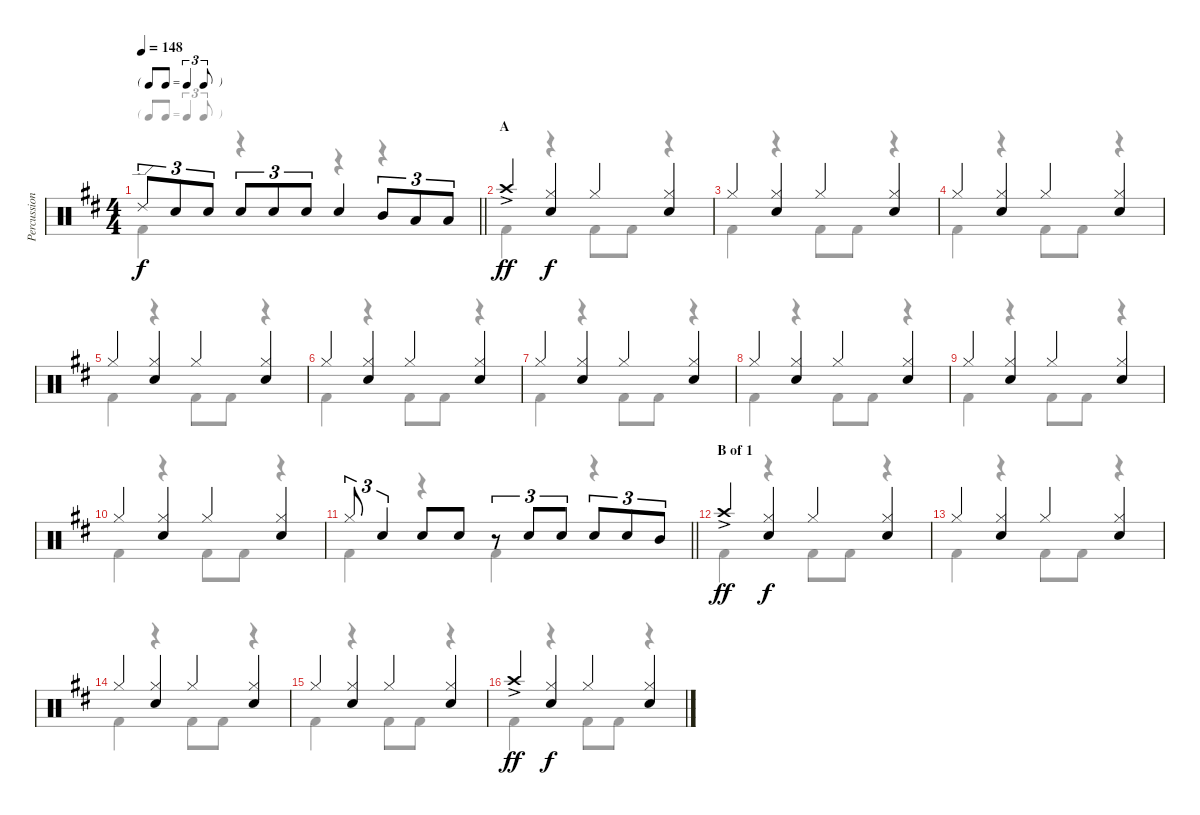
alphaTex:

\track ("Percussion" "Percussion") {instrument percussion}
\staff {score}
\articulation defaults
\voice
\ts (4 4)
\tf triplet8th
\tempo 148
\clef neutral
\barLineRight lightlight
\ks bminor "Ride (edge) 2".8{tu (3 2) dy f} "Snare (hit) 2".8{tu (3 2)} "Snare (hit) 2".8{tu (3 2)} "Snare (hit) 2".8{tu (3 2)} "Snare (hit) 2".8{tu (3 2)} "Snare (hit) 2".8{tu (3 2)} "Snare (hit) 2".4 "Mid Tom (hit)".8{tu (3 2)} "Low Tom (hit)".8{tu (3 2)} "Low Tom (hit)".8{tu (3 2)}
|
\section ("" "A")
"Crash high (hit)"{ac}.4{dy ff} ("Hi-Hat (closed)" "Snare (hit) 2").4{dy f} "Hi-Hat (closed)".4 ("Hi-Hat (closed)" "Snare (hit) 2").4 |
"Hi-Hat (closed)".4 ("Hi-Hat (closed)" "Snare (hit) 2").4 "Hi-Hat (closed)".4 ("Hi-Hat (closed)" "Snare (hit) 2").4 |
"Hi-Hat (closed)".4 ("Hi-Hat (closed)" "Snare (hit) 2").4 "Hi-Hat (closed)".4 ("Hi-Hat (closed)" "Snare (hit) 2").4 |
"Hi-Hat (closed)".4 ("Hi-Hat (closed)" "Snare (hit) 2").4 "Hi-Hat (closed)".4 ("Hi-Hat (closed)" "Snare (hit) 2").4 |
"Hi-Hat (closed)".4 ("Hi-Hat (closed)" "Snare (hit) 2").4 "Hi-Hat (closed)".4 ("Hi-Hat (closed)" "Snare (hit) 2").4 |
"Hi-Hat (closed)".4 ("Hi-Hat (closed)" "Snare (hit) 2").4 "Hi-Hat (closed)".4 ("Hi-Hat (closed)" "Snare (hit) 2").4 |
"Hi-Hat (closed)".4 ("Hi-Hat (closed)" "Snare (hit) 2").4 "Hi-Hat (closed)".4 ("Hi-Hat (closed)" "Snare (hit) 2").4 |
"Hi-Hat (closed)".4 ("Hi-Hat (closed)" "Snare (hit) 2").4 "Hi-Hat (closed)".4 ("Hi-Hat (closed)" "Snare (hit) 2").4 |
"Hi-Hat (closed)".4 ("Hi-Hat (closed)" "Snare (hit) 2").4 "Hi-Hat (closed)".4 ("Hi-Hat (closed)" "Snare (hit) 2").4 |
\barLineRight lightlight "Hi-Hat (closed)".8{tu (3 2)} "Snare (hit) 2".4{tu (3 2)} "Snare (hit) 2".8 "Snare (hit) 2".8
r.8{tu (3 2)} "Snare (hit) 2".8{tu (3 2)} "Snare (hit) 2".8{tu (3 2)} "Snare (hit) 2".8{tu (3 2)} "Snare (hit) 2".8{tu (3 2)} "Mid Tom (hit)".8{tu (3 2)} |
\section ("" "B of 1")
"Crash high (hit)"{ac}.4{dy ff} ("Hi-Hat (closed)" "Snare (hit) 2").4{dy f} "Hi-Hat (closed)".4 ("Hi-Hat (closed)" "Snare (hit) 2").4 |
"Hi-Hat (closed)".4 ("Hi-Hat (closed)" "Snare (hit) 2").4 "Hi-Hat (closed)".4 ("Hi-Hat (closed)" "Snare (hit) 2").4 |
"Hi-Hat (closed)".4 ("Hi-Hat (closed)" "Snare (hit) 2").4 "Hi-Hat (closed)".4 ("Hi-Hat (closed)" "Snare (hit) 2").4 |
"Hi-Hat (closed)".4 ("Hi-Hat (closed)" "Snare (hit) 2").4 "Hi-Hat (closed)".4 ("Hi-Hat (closed)" "Snare (hit) 2").4 |
"Crash high (hit)"{ac}.4{dy ff} ("Hi-Hat (closed)" "Snare (hit) 2").4{dy f} "Hi-Hat (closed)".4 ("Hi-Hat (closed)" "Snare (hit) 2").4
\voice
\clef neutral
\ottava regular
\simile none
\barLineRight lightlight
\ks bminor "Kick (hit) 2".4{dy f}
r.4 r.4 r.4 |
"Kick (hit) 2".4 r.4 "Kick (hit) 2".8 "Kick (hit) 2".8 r.4 |
"Kick (hit) 2".4 r.4 "Kick (hit) 2".8 "Kick (hit) 2".8 r.4 |
"Kick (hit) 2".4 r.4 "Kick (hit) 2".8 "Kick (hit) 2".8 r.4 |
"Kick (hit) 2".4 r.4 "Kick (hit) 2".8 "Kick (hit) 2".8 r.4 |
"Kick (hit) 2".4 r.4 "Kick (hit) 2".8 "Kick (hit) 2".8 r.4 |
"Kick (hit) 2".4 r.4 "Kick (hit) 2".8 "Kick (hit) 2".8 r.4 |
"Kick (hit) 2".4 r.4 "Kick (hit) 2".8 "Kick (hit) 2".8 r.4 |
"Kick (hit) 2".4 r.4 "Kick (hit) 2".8 "Kick (hit) 2".8 r.4 |
"Kick (hit) 2".4 r.4 "Kick (hit) 2".8 "Kick (hit) 2".8 r.4 |
\barLineRight lightlight "Kick (hit) 2".4
r.4 "Kick (hit) 2".4 r.4 |
"Kick (hit) 2".4 r.4 "Kick (hit) 2".8 "Kick (hit) 2".8 r.4 |
"Kick (hit) 2".4 r.4 "Kick (hit) 2".8 "Kick (hit) 2".8 r.4 |
"Kick (hit) 2".4 r.4 "Kick (hit) 2".8 "Kick (hit) 2".8 r.4 |
"Kick (hit) 2".4 r.4 "Kick (hit) 2".8 "Kick (hit) 2".8 r.4 |
"Kick (hit) 2".4 r.4 "Kick (hit) 2".8 "Kick (hit) 2".8 r.4
